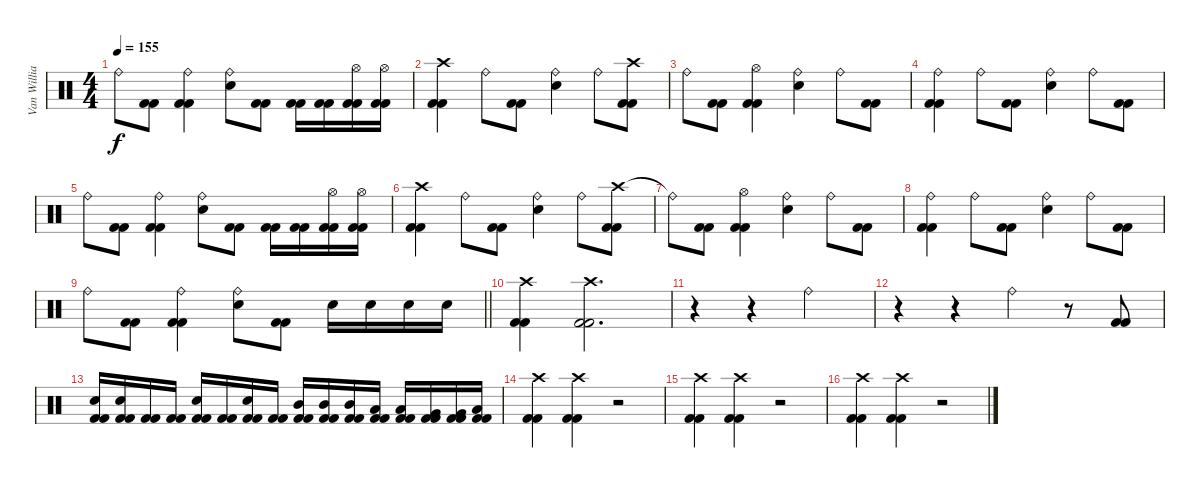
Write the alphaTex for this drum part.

\track ("Van Williams" "Van Willia") {instrument percussion}
\staff {score}
\articulation defaults
\ts (4 4)
\tempo 155
\clef neutral
\ks c "Ride (bell)".8{dy f}
("Kick (hit) 2" "Kick (hit) 2").8 ("Ride (bell)" "Kick (hit) 2" "Kick (hit) 2").4 ("Ride (bell)" "Electric Snare (hit)").8 ("Kick (hit) 2" "Kick (hit) 2").8 ("Kick (hit) 2" "Kick (hit) 2").16 ("Kick (hit) 2" "Kick (hit) 2").16 ("Hi-Hat (open)" "Kick (hit) 2" "Kick (hit) 2").16 ("Hi-Hat (open)" "Kick (hit) 2" "Kick (hit) 2").16 |
("Crash high (hit)" "Kick (hit) 2" "Kick (hit) 2").4 "Ride (bell)".8 ("Kick (hit) 2" "Kick (hit) 2").8 ("Ride (bell)" "Electric Snare (hit)").4 "Ride (bell)".8 ("Crash high (hit)" "Kick (hit) 2" "Kick (hit) 2").8 |
"Ride (bell)".8 ("Kick (hit) 2" "Kick (hit) 2").8 ("Hi-Hat (open)" "Kick (hit) 2" "Kick (hit) 2").4 ("Ride (bell)" "Electric Snare (hit)").4 "Ride (bell)".8 ("Kick (hit) 2" "Kick (hit) 2").8 |
("Ride (bell)" "Kick (hit) 2" "Kick (hit) 2").4 "Ride (bell)".8 ("Kick (hit) 2" "Kick (hit) 2").8 ("Ride (bell)" "Electric Snare (hit)").4 "Ride (bell)".8 ("Kick (hit) 2" "Kick (hit) 2").8 |
"Ride (bell)".8 ("Kick (hit) 2" "Kick (hit) 2").8 ("Ride (bell)" "Kick (hit) 2" "Kick (hit) 2").4 ("Ride (bell)" "Electric Snare (hit)").8 ("Kick (hit) 2" "Kick (hit) 2").8 ("Kick (hit) 2" "Kick (hit) 2").16 ("Kick (hit) 2" "Kick (hit) 2").16 ("Hi-Hat (open)" "Kick (hit) 2" "Kick (hit) 2").16 ("Hi-Hat (open)" "Kick (hit) 2" "Kick (hit) 2").16 |
("Crash high (hit)" "Kick (hit) 2" "Kick (hit) 2").4 "Ride (bell)".8 ("Kick (hit) 2" "Kick (hit) 2").8 ("Ride (bell)" "Electric Snare (hit)").4 "Ride (bell)".8 ("Crash high (hit)" "Kick (hit) 2" "Kick (hit) 2").8 |
"Ride (bell)"{t}.8 ("Kick (hit) 2" "Kick (hit) 2").8 ("Hi-Hat (open)" "Kick (hit) 2" "Kick (hit) 2").4 ("Ride (bell)" "Electric Snare (hit)").4 "Ride (bell)".8 ("Kick (hit) 2" "Kick (hit) 2").8 |
("Ride (bell)" "Kick (hit) 2" "Kick (hit) 2").4 "Ride (bell)".8 ("Kick (hit) 2" "Kick (hit) 2").8 ("Ride (bell)" "Electric Snare (hit)").4 "Ride (bell)".8 ("Kick (hit) 2" "Kick (hit) 2").8 |
\barLineRight lightlight "Ride (bell)".8
("Kick (hit) 2" "Kick (hit) 2").8 ("Ride (bell)" "Kick (hit) 2" "Kick (hit) 2").4 ("Ride (bell)" "Electric Snare (hit)").8 ("Kick (hit) 2" "Kick (hit) 2").8 "Electric Snare (hit)".16 "Electric Snare (hit)".16 "Electric Snare (hit)".16 "Electric Snare (hit)".16 |
("Crash high (hit)" "Kick (hit) 2" "Kick (hit) 2").4 ("Crash high (hit)" "Kick (hit) 2" "Kick (hit) 2").2{d} |
r.4 r.4 "Ride (bell)".2 |
r.4 r.4 "Ride (bell)".4 r.8 ("Kick (hit) 2" "Kick (hit) 2").8 |
("Electric Snare (hit)" "Kick (hit) 2" "Kick (hit) 2").16 ("Electric Snare (hit)" "Kick (hit) 2" "Kick (hit) 2").16 ("Kick (hit) 2" "Kick (hit) 2").16 ("Kick (hit) 2" "Kick (hit) 2").16 ("Electric Snare (hit)" "Kick (hit) 2" "Kick (hit) 2").16 ("Kick (hit) 2" "Kick (hit) 2").16 ("Electric Snare (hit)" "Kick (hit) 2" "Kick (hit) 2").16 ("Kick (hit) 2" "Kick (hit) 2").16 ("Mid Tom (hit)" "Kick (hit) 2" "Kick (hit) 2").16 ("Mid Tom (hit)" "Kick (hit) 2" "Kick (hit) 2").16 ("Mid Tom (hit)" "Kick (hit) 2" "Kick (hit) 2").16 ("Low Tom (hit)" "Kick (hit) 2" "Kick (hit) 2").16 ("Low Tom (hit)" "Kick (hit) 2" "Kick (hit) 2").16 ("Very Low Tom (hit)" "Kick (hit) 2" "Kick (hit) 2").16 ("Very Low Tom (hit)" "Kick (hit) 2" "Kick (hit) 2").16 ("Low Floor Tom (hit)" "Kick (hit) 2" "Kick (hit) 2").16 |
("Crash high (hit)" "Kick (hit) 2" "Kick (hit) 2").4 ("Crash high (hit)" "Kick (hit) 2" "Kick (hit) 2").4 r.2 |
("Crash high (hit)" "Kick (hit) 2" "Kick (hit) 2").4 ("Crash high (hit)" "Kick (hit) 2" "Kick (hit) 2").4 r.2 |
("Crash high (hit)" "Kick (hit) 2" "Kick (hit) 2").4 ("Crash high (hit)" "Kick (hit) 2" "Kick (hit) 2").4 r.2
